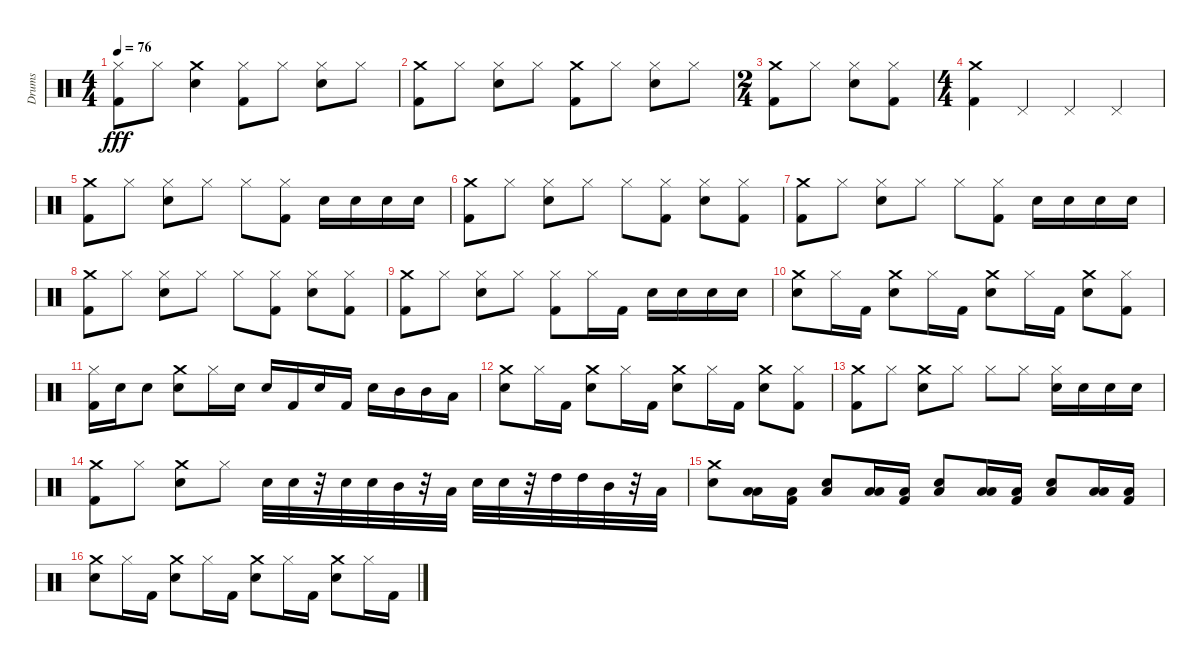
\track ("Drums" "Drums") {instrument percussion}
\staff {score}
\articulation defaults
\ts (4 4)
\tempo 76
\clef neutral
\ks c
("Hi-Hat (closed)" "Kick (hit) 2").8{dy fff} "Hi-Hat (closed)".8 ("Snare (hit) 2" "Crash medium (hit)").4 ("Hi-Hat (closed)" "Kick (hit) 2").8 "Hi-Hat (closed)".8 ("Hi-Hat (closed)" "Snare (hit) 2").8 "Hi-Hat (closed)".8 |
("Kick (hit) 2" "Crash medium (hit)").8 "Hi-Hat (closed)".8 ("Snare (hit) 2" "Hi-Hat (closed)").8 "Hi-Hat (closed)".8 ("Kick (hit) 2" "Crash medium (hit)").8 "Hi-Hat (closed)".8 ("Snare (hit) 2" "Hi-Hat (closed)").8 "Hi-Hat (closed)".8 |
\ts (2 4)
("Kick (hit) 2" "Crash medium (hit)").8 "Hi-Hat (closed)".8 ("Snare (hit) 2" "Hi-Hat (closed)").8 ("Hi-Hat (closed)" "Kick (hit) 2").8 |
\ts (4 4)
("Kick (hit) 2" "Crash medium (hit)").4 "Pedal Hi-Hat (hit)".4 "Pedal Hi-Hat (hit)".4 "Pedal Hi-Hat (hit)".4 |
("Crash medium (hit)" "Kick (hit) 2").8 "Hi-Hat (closed)".8 ("Hi-Hat (closed)" "Snare (hit) 2").8 "Hi-Hat (closed)".8 "Hi-Hat (closed)".8 ("Hi-Hat (closed)" "Kick (hit) 2").8 "Snare (hit) 2".16 "Snare (hit) 2".16 "Snare (hit) 2".16 "Snare (hit) 2".16 |
("Kick (hit) 2" "Crash medium (hit)").8 "Hi-Hat (closed)".8 ("Hi-Hat (closed)" "Snare (hit) 2").8 "Hi-Hat (closed)".8 "Hi-Hat (closed)".8 ("Hi-Hat (closed)" "Kick (hit) 2").8 ("Hi-Hat (closed)" "Snare (hit) 2").8 ("Hi-Hat (closed)" "Kick (hit) 2").8 |
("Kick (hit) 2" "Crash medium (hit)").8 "Hi-Hat (closed)".8 ("Hi-Hat (closed)" "Snare (hit) 2").8 "Hi-Hat (closed)".8 "Hi-Hat (closed)".8 ("Hi-Hat (closed)" "Kick (hit) 2").8 "Snare (hit) 2".16 "Snare (hit) 2".16 "Snare (hit) 2".16 "Snare (hit) 2".16 |
("Kick (hit) 2" "Crash medium (hit)").8 "Hi-Hat (closed)".8 ("Hi-Hat (closed)" "Snare (hit) 2").8 "Hi-Hat (closed)".8 "Hi-Hat (closed)".8 ("Hi-Hat (closed)" "Kick (hit) 2").8 ("Hi-Hat (closed)" "Snare (hit) 2").8 ("Hi-Hat (closed)" "Kick (hit) 2").8 |
("Kick (hit) 2" "Crash medium (hit)").8 "Hi-Hat (closed)".8 ("Hi-Hat (closed)" "Snare (hit) 2").8 "Hi-Hat (closed)".8 ("Hi-Hat (closed)" "Kick (hit) 2").8 "Hi-Hat (closed)".16 "Kick (hit) 2".16 "Snare (hit) 2".16 "Snare (hit) 2".16 "Snare (hit) 2".16 "Snare (hit) 2".16 |
("Crash medium (hit)" "Snare (hit) 2").8 "Hi-Hat (closed)".16 "Kick (hit) 2".16 ("Snare (hit) 2" "Crash medium (hit)").8 "Hi-Hat (closed)".16 "Kick (hit) 2".16 ("Snare (hit) 2" "Crash medium (hit)").8 "Hi-Hat (closed)".16 "Kick (hit) 2".16 ("Snare (hit) 2" "Crash medium (hit)").8 ("Hi-Hat (closed)" "Kick (hit) 2").8 |
("Hi-Hat (closed)" "Kick (hit) 2").16 "Snare (hit) 2".16 "Snare (hit) 2".8 ("Snare (hit) 2" "Crash medium (hit)").8 "Hi-Hat (closed)".16 "Snare (hit) 2".16 "Snare (hit) 2".16 "Kick (hit) 2".16 "Snare (hit) 2".16 "Kick (hit) 2".16 "Snare (hit) 2".16 "Mid Tom (hit)".16 "Mid Tom (hit)".16 "Low Tom (hit)".16 |
("Crash medium (hit)" "Snare (hit) 2").8 "Hi-Hat (closed)".16 "Kick (hit) 2".16 ("Snare (hit) 2" "Crash medium (hit)").8 "Hi-Hat (closed)".16 "Kick (hit) 2".16 ("Snare (hit) 2" "Crash medium (hit)").8 "Hi-Hat (closed)".16 "Kick (hit) 2".16 ("Snare (hit) 2" "Crash medium (hit)").8 ("Hi-Hat (closed)" "Kick (hit) 2").8 |
("Kick (hit) 2" "Crash medium (hit)").8 "Hi-Hat (closed)".8 ("Snare (hit) 2" "Crash medium (hit)").8 "Hi-Hat (closed)".8 "Hi-Hat (closed)".8 "Hi-Hat (closed)".8 ("Snare (hit) 2" "Hi-Hat (closed)").16 "Snare (hit) 2".16 "Snare (hit) 2".16 "Snare (hit) 2".16 |
("Kick (hit) 2" "Crash medium (hit)").8 "Hi-Hat (closed)".8 ("Snare (hit) 2" "Crash medium (hit)").8 "Hi-Hat (closed)".8 "Snare (hit) 2".32 "Snare (hit) 2".32 r.32 "Snare (hit) 2".32 "Snare (hit) 2".32 "Mid Tom (hit)".32 r.32 "Low Tom (hit)".32 "Snare (hit) 2".32 "Snare (hit) 2".32 r.32 "High Tom (hit)".32 "High Tom (hit)".32 "Mid Tom (hit)".32 r.32 "Low Tom (hit)".32 |
("Snare (hit) 2" "Crash medium (hit)").8 ("Low Floor Tom (hit)" "Low Tom (hit)").16 ("Kick (hit) 2" "Low Floor Tom (hit)").16 ("Snare (hit) 2" "Low Tom (hit)").8 ("Low Tom (hit)" "Low Floor Tom (hit)").16 ("Kick (hit) 2" "Low Floor Tom (hit)").16 ("Snare (hit) 2" "Low Tom (hit)").8 ("Low Tom (hit)" "Low Floor Tom (hit)").16 ("Kick (hit) 2" "Low Floor Tom (hit)").16 ("Snare (hit) 2" "Low Tom (hit)").8 ("Low Tom (hit)" "Low Floor Tom (hit)").16 ("Kick (hit) 2" "Low Floor Tom (hit)").16 |
("Crash medium (hit)" "Snare (hit) 2").8 "Hi-Hat (closed)".16 "Kick (hit) 2".16 ("Snare (hit) 2" "Crash medium (hit)").8 "Hi-Hat (closed)".16 "Kick (hit) 2".16 ("Snare (hit) 2" "Crash medium (hit)").8 "Hi-Hat (closed)".16 "Kick (hit) 2".16 ("Snare (hit) 2" "Crash medium (hit)").8 "Hi-Hat (closed)".16 "Kick (hit) 2".16
